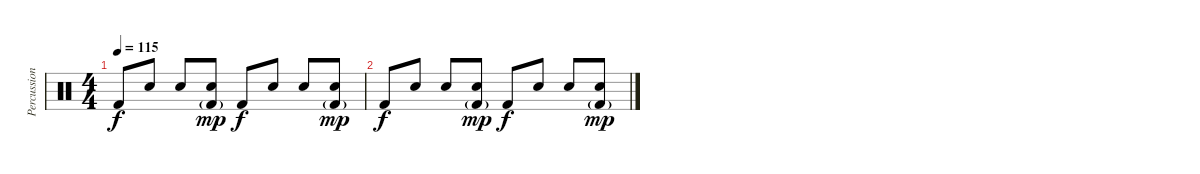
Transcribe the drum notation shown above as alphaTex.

\track ("Percussion" "Percussion") {instrument percussion}
\staff {score}
\articulation defaults
\ts (4 4)
\tempo 115
\clef neutral
\ks c "Kick (hit) 2".8{dy f} "Hand Clap (hit)".8 "Snare (hit) 2".8
("Hand Clap (hit)" "Kick (hit) 2"{g}).8{dy mp} "Kick (hit) 2".8{dy f} "Hand Clap (hit)".8 "Snare (hit) 2".8 ("Hand Clap (hit)" "Kick (hit) 2"{g}).8{dy mp} |
"Kick (hit) 2".8{dy f} "Hand Clap (hit)".8 "Snare (hit) 2".8 ("Hand Clap (hit)" "Kick (hit) 2"{g}).8{dy mp} "Kick (hit) 2".8{dy f} "Hand Clap (hit)".8 "Snare (hit) 2".8 ("Hand Clap (hit)" "Kick (hit) 2"{g}).8{dy mp}
